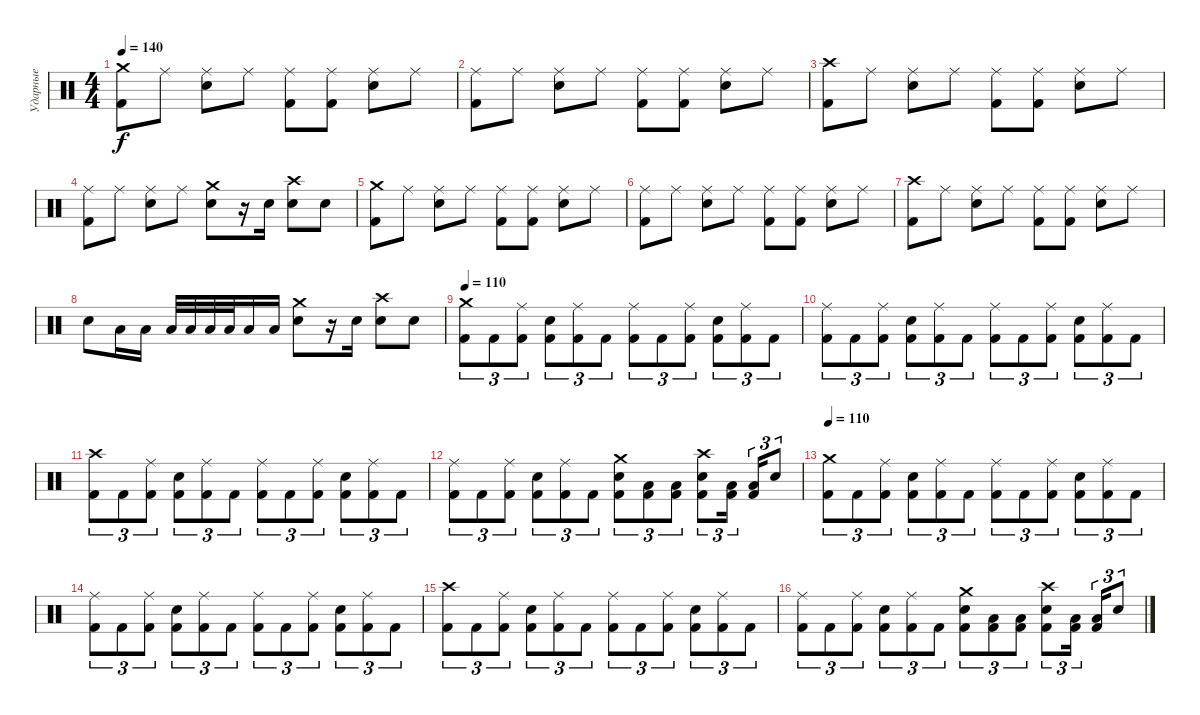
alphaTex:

\track ("Ударные" "Ударные") {instrument percussion}
\staff {score}
\articulation defaults
\ts (4 4)
\tempo 140
\clef neutral
\ks c
("Crash medium (hit)" "Kick (hit) 2").8{dy f} "Ride (middle)".8 ("Ride (middle)" "Electric Snare (hit)").8 "Ride (middle)".8 ("Ride (middle)" "Kick (hit) 2").8 ("Ride (middle)" "Kick (hit) 2").8 ("Ride (middle)" "Electric Snare (hit)").8 "Ride (middle)".8 |
("Ride (middle)" "Kick (hit) 2").8 "Ride (middle)".8 ("Ride (middle)" "Electric Snare (hit)").8 "Ride (middle)".8 ("Ride (middle)" "Kick (hit) 2").8 ("Ride (middle)" "Kick (hit) 2").8 ("Ride (middle)" "Electric Snare (hit)").8 "Ride (middle)".8 |
("Crash high (hit)" "Kick (hit) 2").8 "Ride (middle)".8 ("Ride (middle)" "Electric Snare (hit)").8 "Ride (middle)".8 ("Ride (middle)" "Kick (hit) 2").8 ("Ride (middle)" "Kick (hit) 2").8 ("Ride (middle)" "Electric Snare (hit)").8 "Ride (middle)".8 |
("Ride (middle)" "Kick (hit) 2").8 "Ride (middle)".8 ("Ride (middle)" "Electric Snare (hit)").8 "Ride (middle)".8 ("Crash medium (hit)" "Electric Snare (hit)").8 r.16 "Electric Snare (hit)".16 ("Crash high (hit)" "Electric Snare (hit)").8 "Electric Snare (hit)".8 |
("Crash medium (hit)" "Kick (hit) 2").8 "Ride (middle)".8 ("Ride (middle)" "Electric Snare (hit)").8 "Ride (middle)".8 ("Ride (middle)" "Kick (hit) 2").8 ("Ride (middle)" "Kick (hit) 2").8 ("Ride (middle)" "Electric Snare (hit)").8 "Ride (middle)".8 |
("Ride (middle)" "Kick (hit) 2").8 "Ride (middle)".8 ("Ride (middle)" "Electric Snare (hit)").8 "Ride (middle)".8 ("Ride (middle)" "Kick (hit) 2").8 ("Ride (middle)" "Kick (hit) 2").8 ("Ride (middle)" "Electric Snare (hit)").8 "Ride (middle)".8 |
("Crash high (hit)" "Kick (hit) 2").8 "Ride (middle)".8 ("Ride (middle)" "Electric Snare (hit)").8 "Ride (middle)".8 ("Ride (middle)" "Kick (hit) 2").8 ("Ride (middle)" "Kick (hit) 2").8 ("Ride (middle)" "Electric Snare (hit)").8 "Ride (middle)".8 |
"Electric Snare (hit)".8 "Low Tom (hit)".16 "Low Tom (hit)".16 "Low Tom (hit)".32 "Low Tom (hit)".32 "Low Tom (hit)".32 "Low Tom (hit)".32 "Low Tom (hit)".16 "Low Tom (hit)".16 ("Crash medium (hit)" "Electric Snare (hit)").8 r.16 "Electric Snare (hit)".16 ("Crash high (hit)" "Electric Snare (hit)").8 "Electric Snare (hit)".8 |
\tempo 110
("Crash medium (hit)" "Kick (hit) 2").8{tu (3 2)} "Kick (hit) 2".8{tu (3 2)} ("Ride (middle)" "Kick (hit) 2").8{tu (3 2)} ("Electric Snare (hit)" "Kick (hit) 2").8{tu (3 2)} ("Ride (middle)" "Kick (hit) 2").8{tu (3 2)} "Kick (hit) 2".8{tu (3 2)} ("Ride (middle)" "Kick (hit) 2").8{tu (3 2)} "Kick (hit) 2".8{tu (3 2)} ("Ride (middle)" "Kick (hit) 2").8{tu (3 2)} ("Electric Snare (hit)" "Kick (hit) 2").8{tu (3 2)} ("Ride (middle)" "Kick (hit) 2").8{tu (3 2)} "Kick (hit) 2".8{tu (3 2)} |
("Ride (middle)" "Kick (hit) 2").8{tu (3 2)} "Kick (hit) 2".8{tu (3 2)} ("Ride (middle)" "Kick (hit) 2").8{tu (3 2)} ("Electric Snare (hit)" "Kick (hit) 2").8{tu (3 2)} ("Ride (middle)" "Kick (hit) 2").8{tu (3 2)} "Kick (hit) 2".8{tu (3 2)} ("Ride (middle)" "Kick (hit) 2").8{tu (3 2)} "Kick (hit) 2".8{tu (3 2)} ("Ride (middle)" "Kick (hit) 2").8{tu (3 2)} ("Electric Snare (hit)" "Kick (hit) 2").8{tu (3 2)} ("Ride (middle)" "Kick (hit) 2").8{tu (3 2)} "Kick (hit) 2".8{tu (3 2)} |
("Crash high (hit)" "Kick (hit) 2").8{tu (3 2)} "Kick (hit) 2".8{tu (3 2)} ("Ride (middle)" "Kick (hit) 2").8{tu (3 2)} ("Electric Snare (hit)" "Kick (hit) 2").8{tu (3 2)} ("Ride (middle)" "Kick (hit) 2").8{tu (3 2)} "Kick (hit) 2".8{tu (3 2)} ("Ride (middle)" "Kick (hit) 2").8{tu (3 2)} "Kick (hit) 2".8{tu (3 2)} ("Ride (middle)" "Kick (hit) 2").8{tu (3 2)} ("Electric Snare (hit)" "Kick (hit) 2").8{tu (3 2)} ("Ride (middle)" "Kick (hit) 2").8{tu (3 2)} "Kick (hit) 2".8{tu (3 2)} |
("Ride (middle)" "Kick (hit) 2").8{tu (3 2)} "Kick (hit) 2".8{tu (3 2)} ("Ride (middle)" "Kick (hit) 2").8{tu (3 2)} ("Electric Snare (hit)" "Kick (hit) 2").8{tu (3 2)} ("Ride (middle)" "Kick (hit) 2").8{tu (3 2)} "Kick (hit) 2".8{tu (3 2)} ("Crash medium (hit)" "Electric Snare (hit)" "Kick (hit) 2").8{tu (3 2)} ("Low Tom (hit)" "Kick (hit) 2").8{tu (3 2)} ("Low Tom (hit)" "Kick (hit) 2").8{tu (3 2)} ("Crash high (hit)" "Electric Snare (hit)" "Kick (hit) 2").8{tu (3 2)} ("Low Tom (hit)" "Kick (hit) 2").16{tu (3 2)} ("Low Tom (hit)" "Kick (hit) 2").16{tu (3 2)} "Electric Snare (hit)".8{tu (3 2)} |
\tempo 110
("Crash medium (hit)" "Kick (hit) 2").8{tu (3 2)} "Kick (hit) 2".8{tu (3 2)} ("Ride (middle)" "Kick (hit) 2").8{tu (3 2)} ("Electric Snare (hit)" "Kick (hit) 2").8{tu (3 2)} ("Ride (middle)" "Kick (hit) 2").8{tu (3 2)} "Kick (hit) 2".8{tu (3 2)} ("Ride (middle)" "Kick (hit) 2").8{tu (3 2)} "Kick (hit) 2".8{tu (3 2)} ("Ride (middle)" "Kick (hit) 2").8{tu (3 2)} ("Electric Snare (hit)" "Kick (hit) 2").8{tu (3 2)} ("Ride (middle)" "Kick (hit) 2").8{tu (3 2)} "Kick (hit) 2".8{tu (3 2)} |
("Ride (middle)" "Kick (hit) 2").8{tu (3 2)} "Kick (hit) 2".8{tu (3 2)} ("Ride (middle)" "Kick (hit) 2").8{tu (3 2)} ("Electric Snare (hit)" "Kick (hit) 2").8{tu (3 2)} ("Ride (middle)" "Kick (hit) 2").8{tu (3 2)} "Kick (hit) 2".8{tu (3 2)} ("Ride (middle)" "Kick (hit) 2").8{tu (3 2)} "Kick (hit) 2".8{tu (3 2)} ("Ride (middle)" "Kick (hit) 2").8{tu (3 2)} ("Electric Snare (hit)" "Kick (hit) 2").8{tu (3 2)} ("Ride (middle)" "Kick (hit) 2").8{tu (3 2)} "Kick (hit) 2".8{tu (3 2)} |
("Crash high (hit)" "Kick (hit) 2").8{tu (3 2)} "Kick (hit) 2".8{tu (3 2)} ("Ride (middle)" "Kick (hit) 2").8{tu (3 2)} ("Electric Snare (hit)" "Kick (hit) 2").8{tu (3 2)} ("Ride (middle)" "Kick (hit) 2").8{tu (3 2)} "Kick (hit) 2".8{tu (3 2)} ("Ride (middle)" "Kick (hit) 2").8{tu (3 2)} "Kick (hit) 2".8{tu (3 2)} ("Ride (middle)" "Kick (hit) 2").8{tu (3 2)} ("Electric Snare (hit)" "Kick (hit) 2").8{tu (3 2)} ("Ride (middle)" "Kick (hit) 2").8{tu (3 2)} "Kick (hit) 2".8{tu (3 2)} |
("Ride (middle)" "Kick (hit) 2").8{tu (3 2)} "Kick (hit) 2".8{tu (3 2)} ("Ride (middle)" "Kick (hit) 2").8{tu (3 2)} ("Electric Snare (hit)" "Kick (hit) 2").8{tu (3 2)} ("Ride (middle)" "Kick (hit) 2").8{tu (3 2)} "Kick (hit) 2".8{tu (3 2)} ("Crash medium (hit)" "Electric Snare (hit)" "Kick (hit) 2").8{tu (3 2)} ("Low Tom (hit)" "Kick (hit) 2").8{tu (3 2)} ("Low Tom (hit)" "Kick (hit) 2").8{tu (3 2)} ("Crash high (hit)" "Electric Snare (hit)" "Kick (hit) 2").8{tu (3 2)} ("Low Tom (hit)" "Kick (hit) 2").16{tu (3 2)} ("Low Tom (hit)" "Kick (hit) 2").16{tu (3 2)} "Electric Snare (hit)".8{tu (3 2)}
